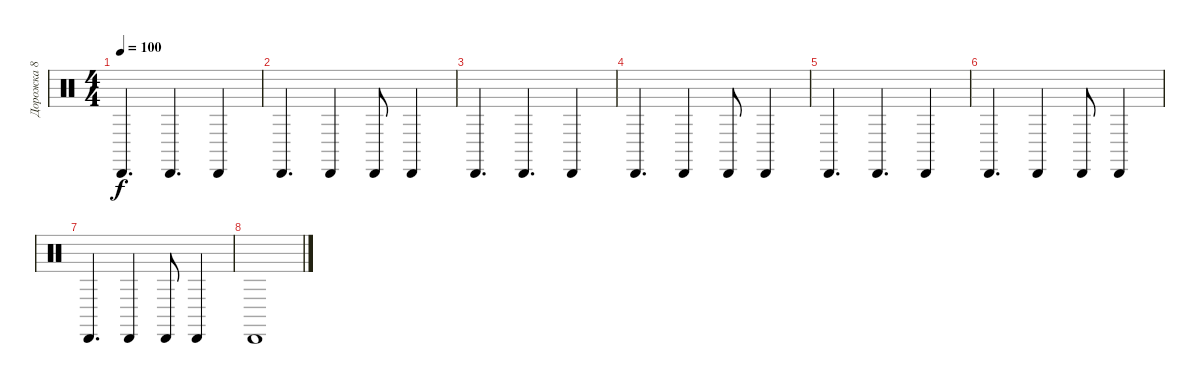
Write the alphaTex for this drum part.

\track ("Дорожка 8" "Дорожка 8") {instrument percussion}
\staff {score}
\articulation defaults
\ts (4 4)
\tempo 100
\clef neutral
\ks c "Cabasa (hit)".4{d dy f} "Cabasa (hit)".4{d} "Cabasa (hit)".4
|
"Cabasa (hit)".4{d} "Cabasa (hit)".4 "Cabasa (hit)".8 "Cabasa (hit)".4 |
"Cabasa (hit)".4{d} "Cabasa (hit)".4{d} "Cabasa (hit)".4 |
"Cabasa (hit)".4{d} "Cabasa (hit)".4 "Cabasa (hit)".8 "Cabasa (hit)".4 |
"Cabasa (hit)".4{d} "Cabasa (hit)".4{d} "Cabasa (hit)".4 |
"Cabasa (hit)".4{d} "Cabasa (hit)".4 "Cabasa (hit)".8 "Cabasa (hit)".4 |
"Cabasa (hit)".4{d} "Cabasa (hit)".4 "Cabasa (hit)".8 "Cabasa (hit)".4 |
"Cabasa (hit)".1
